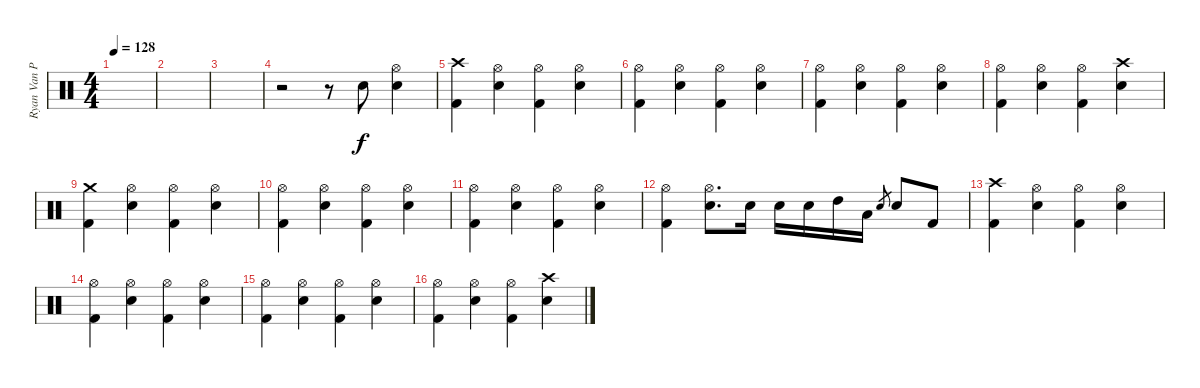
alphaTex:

\track ("Ryan Van Poederooyen" "Ryan Van P") {instrument percussion}
\staff {score}
\articulation defaults
\ts (4 4)
\tempo 128
\clef neutral
\ks c
|
|
|
r.2 r.8 "Electric Snare (hit)".8 ("Hi-Hat (open)" "Electric Snare (hit)").4 |
("Crash high (hit)" "Kick (hit) 2").4 ("Hi-Hat (open)" "Electric Snare (hit)").4 ("Hi-Hat (open)" "Kick (hit) 2").4 ("Hi-Hat (open)" "Electric Snare (hit)").4 |
("Hi-Hat (open)" "Kick (hit) 2").4 ("Hi-Hat (open)" "Electric Snare (hit)").4 ("Hi-Hat (open)" "Kick (hit) 2").4 ("Hi-Hat (open)" "Electric Snare (hit)").4 |
("Hi-Hat (open)" "Kick (hit) 2").4 ("Hi-Hat (open)" "Electric Snare (hit)").4 ("Hi-Hat (open)" "Kick (hit) 2").4 ("Hi-Hat (open)" "Electric Snare (hit)").4 |
("Hi-Hat (open)" "Kick (hit) 2").4 ("Hi-Hat (open)" "Electric Snare (hit)").4 ("Hi-Hat (open)" "Kick (hit) 2").4 ("Crash high (hit)" "Electric Snare (hit)").4 |
("Crash medium (hit)" "Kick (hit) 2").4 ("Hi-Hat (open)" "Electric Snare (hit)").4 ("Hi-Hat (open)" "Kick (hit) 2").4 ("Hi-Hat (open)" "Electric Snare (hit)").4 |
("Hi-Hat (open)" "Kick (hit) 2").4 ("Hi-Hat (open)" "Electric Snare (hit)").4 ("Hi-Hat (open)" "Kick (hit) 2").4 ("Hi-Hat (open)" "Electric Snare (hit)").4 |
("Hi-Hat (open)" "Kick (hit) 2").4 ("Hi-Hat (open)" "Electric Snare (hit)").4 ("Hi-Hat (open)" "Kick (hit) 2").4 ("Hi-Hat (open)" "Electric Snare (hit)").4 |
("Hi-Hat (open)" "Kick (hit) 2").4 ("Hi-Hat (open)" "Electric Snare (hit)").8{d} "Electric Snare (hit)".16 "Electric Snare (hit)".16 "Electric Snare (hit)".16 "High Tom (hit)".16 "Low Tom (hit)".16 "Electric Snare (hit)".8{gr} "Electric Snare (hit)".8 "Kick (hit) 2".8 |
("Crash high (hit)" "Kick (hit) 2").4 ("Hi-Hat (open)" "Electric Snare (hit)").4 ("Hi-Hat (open)" "Kick (hit) 2").4 ("Hi-Hat (open)" "Electric Snare (hit)").4 |
("Hi-Hat (open)" "Kick (hit) 2").4 ("Hi-Hat (open)" "Electric Snare (hit)").4 ("Hi-Hat (open)" "Kick (hit) 2").4 ("Hi-Hat (open)" "Electric Snare (hit)").4 |
("Hi-Hat (open)" "Kick (hit) 2").4 ("Hi-Hat (open)" "Electric Snare (hit)").4 ("Hi-Hat (open)" "Kick (hit) 2").4 ("Hi-Hat (open)" "Electric Snare (hit)").4 |
("Hi-Hat (open)" "Kick (hit) 2").4 ("Hi-Hat (open)" "Electric Snare (hit)").4 ("Hi-Hat (open)" "Kick (hit) 2").4 ("Crash high (hit)" "Electric Snare (hit)").4
